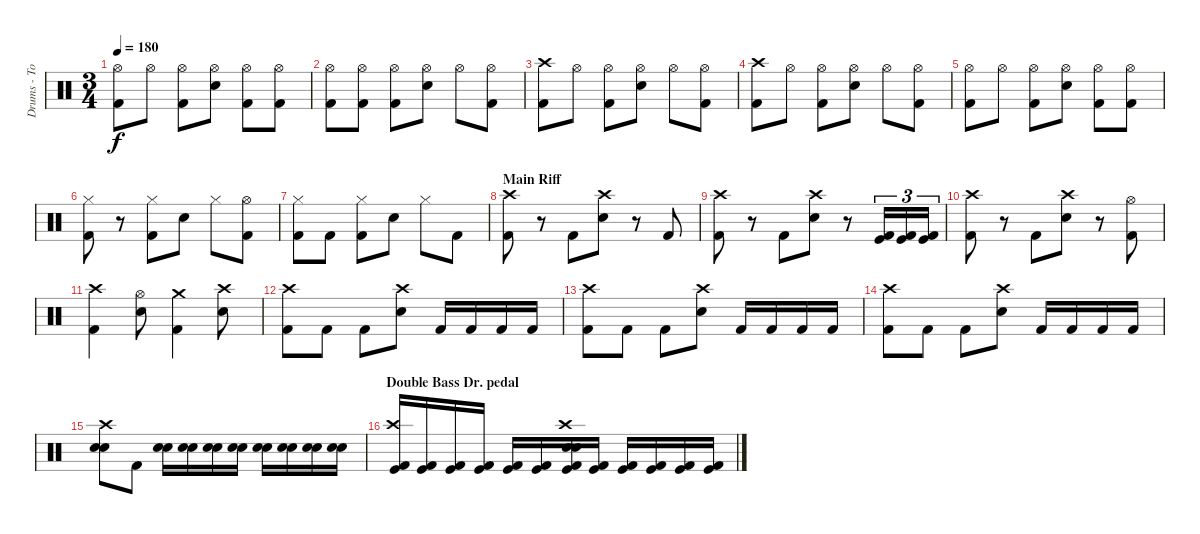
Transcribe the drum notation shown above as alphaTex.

\track ("Drums - Tomas" "Drums - To") {instrument percussion}
\staff {score}
\articulation defaults
\ts (3 4)
\tempo 180
\clef neutral
\ks c
("Hi-Hat (open)" "Kick (hit) 2").8{dy f} "Hi-Hat (open)".8 ("Hi-Hat (open)" "Kick (hit) 2").8 ("Hi-Hat (open)" "Electric Snare (hit)").8 ("Hi-Hat (open)" "Kick (hit) 2").8 ("Hi-Hat (open)" "Kick (hit) 2").8 |
("Hi-Hat (open)" "Kick (hit) 2").8 ("Hi-Hat (open)" "Kick (hit) 2").8 ("Hi-Hat (open)" "Kick (hit) 2").8 ("Hi-Hat (open)" "Electric Snare (hit)").8 "Hi-Hat (open)".8 ("Hi-Hat (open)" "Kick (hit) 2").8 |
("Crash high (hit)" "Kick (hit) 2").8 "Hi-Hat (open)".8 ("Hi-Hat (open)" "Kick (hit) 2").8 ("Hi-Hat (open)" "Electric Snare (hit)").8 "Hi-Hat (open)".8 ("Hi-Hat (open)" "Kick (hit) 2").8 |
("Crash high (hit)" "Kick (hit) 2").8 "Hi-Hat (open)".8 ("Hi-Hat (open)" "Kick (hit) 2").8 ("Hi-Hat (open)" "Electric Snare (hit)").8 "Hi-Hat (open)".8 ("Hi-Hat (open)" "Kick (hit) 2").8 |
("Hi-Hat (open)" "Kick (hit) 2").8 "Hi-Hat (open)".8 ("Hi-Hat (open)" "Kick (hit) 2").8 ("Hi-Hat (open)" "Electric Snare (hit)").8 ("Hi-Hat (open)" "Kick (hit) 2").8 ("Hi-Hat (open)" "Kick (hit) 2").8 |
("Hi-Hat (closed)" "Kick (hit) 2").8 r.8 ("Hi-Hat (closed)" "Kick (hit) 2").8 "Electric Snare (hit)".8 "Hi-Hat (closed)".8 ("Hi-Hat (open)" "Kick (hit) 2").8 |
("Hi-Hat (closed)" "Kick (hit) 2").8 "Kick (hit) 2".8 ("Hi-Hat (closed)" "Kick (hit) 2").8 "Electric Snare (hit)".8 "Hi-Hat (closed)".8 "Kick (hit) 2".8 |
\section ("" "Main Riff")
("Crash high (hit)" "Kick (hit) 2").8 r.8 "Kick (hit) 2".8 ("Crash high (hit)" "Electric Snare (hit)").8 r.8 "Kick (hit) 2".8 |
("Crash high (hit)" "Kick (hit) 2").8 r.8 "Kick (hit) 2".8 ("Crash high (hit)" "Electric Snare (hit)").8 r.8 ("Kick (hit)" "Kick (hit) 2").16{tu (3 2)} ("Kick (hit)" "Kick (hit) 2").16{tu (3 2)} ("Kick (hit)" "Kick (hit) 2").16{tu (3 2)} |
("Crash high (hit)" "Kick (hit) 2").8 r.8 "Kick (hit) 2".8 ("Crash high (hit)" "Electric Snare (hit)").8 r.8 ("Hi-Hat (open)" "Kick (hit) 2").8 |
("Crash high (hit)" "Kick (hit) 2").4 ("Hi-Hat (open)" "Electric Snare (hit)").8 ("Crash medium (hit)" "Kick (hit) 2").4 ("Crash high (hit)" "Electric Snare (hit)").8 |
("Crash high (hit)" "Kick (hit) 2").8 "Kick (hit) 2".8 "Kick (hit) 2".8 ("Crash high (hit)" "Electric Snare (hit)").8 "Kick (hit) 2".16 "Kick (hit) 2".16 "Kick (hit) 2".16 "Kick (hit) 2".16 |
("Crash high (hit)" "Kick (hit) 2").8 "Kick (hit) 2".8 "Kick (hit) 2".8 ("Crash high (hit)" "Electric Snare (hit)").8 "Kick (hit) 2".16 "Kick (hit) 2".16 "Kick (hit) 2".16 "Kick (hit) 2".16 |
("Crash high (hit)" "Kick (hit) 2").8 "Kick (hit) 2".8 "Kick (hit) 2".8 ("Crash high (hit)" "Electric Snare (hit)").8 "Kick (hit) 2".16 "Kick (hit) 2".16 "Kick (hit) 2".16 "Kick (hit) 2".16 |
("Crash high (hit)" "Electric Snare (hit)" "Electric Snare (hit)").8 "Kick (hit) 2".8 ("Electric Snare (hit)" "Electric Snare (hit)").16 ("Electric Snare (hit)" "Electric Snare (hit)").16 ("Electric Snare (hit)" "Electric Snare (hit)").16 ("Electric Snare (hit)" "Electric Snare (hit)").16 ("Electric Snare (hit)" "Electric Snare (hit)").16 ("Electric Snare (hit)" "Electric Snare (hit)").16 ("Electric Snare (hit)" "Electric Snare (hit)").16 ("Electric Snare (hit)" "Electric Snare (hit)").16 |
\section ("" "Double Bass Dr. pedal")
("Crash high (hit)" "Kick (hit)" "Kick (hit) 2").16 ("Kick (hit)" "Kick (hit) 2").16 ("Kick (hit)" "Kick (hit) 2").16 ("Kick (hit)" "Kick (hit) 2").16 ("Kick (hit)" "Kick (hit) 2").16 ("Kick (hit)" "Kick (hit) 2").16 ("Crash high (hit)" "Electric Snare (hit)" "Electric Snare (hit)" "Kick (hit)" "Kick (hit) 2").16 ("Kick (hit)" "Kick (hit) 2").16 ("Kick (hit)" "Kick (hit) 2").16 ("Kick (hit)" "Kick (hit) 2").16 ("Kick (hit)" "Kick (hit) 2").16 ("Kick (hit)" "Kick (hit) 2").16
